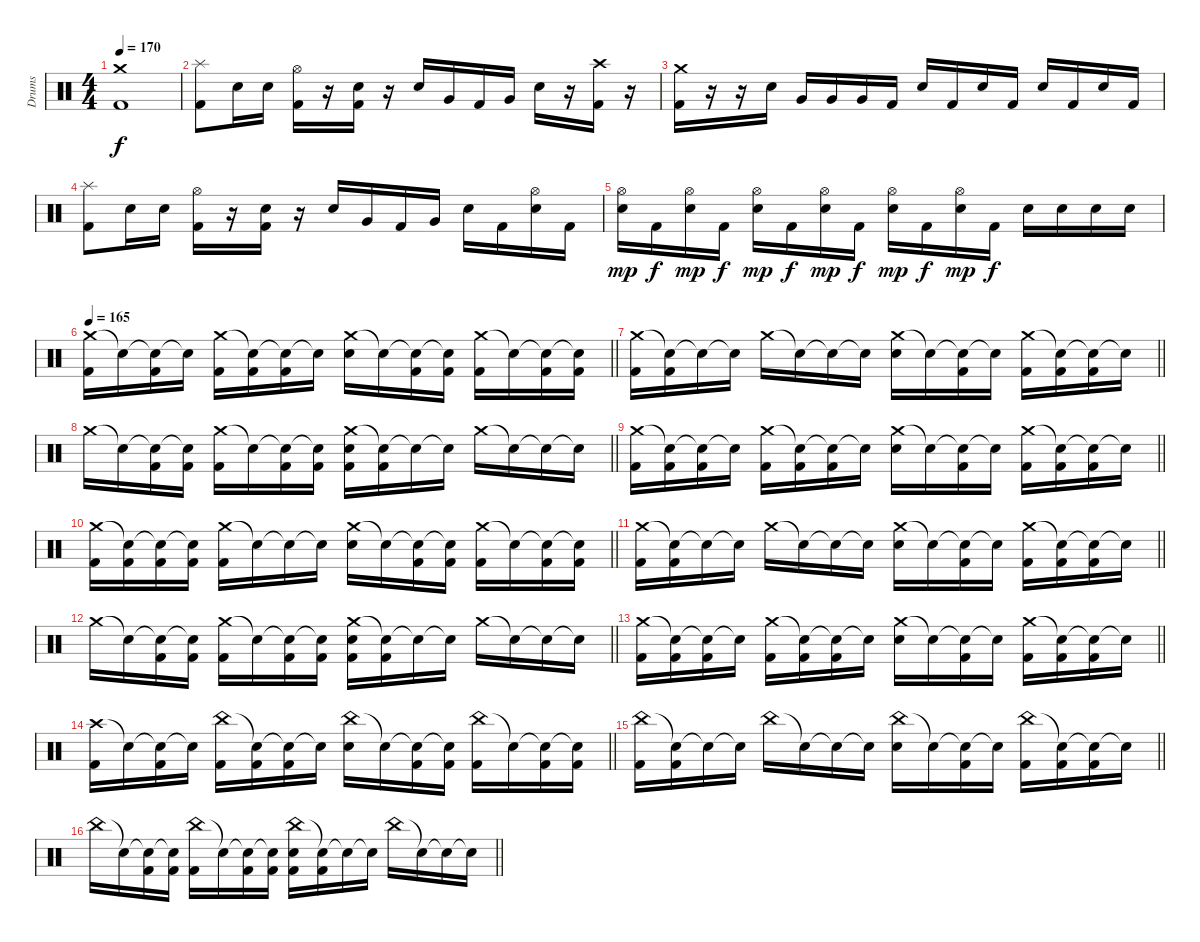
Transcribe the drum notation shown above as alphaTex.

\track ("Drums" "Drums") {instrument percussion}
\staff {score}
\articulation defaults
\ts (4 4)
\tempo 170
\clef neutral
\ks c
("Crash medium (hit)" "Kick (hit) 2").1{dy f} |
("Splash (hit)" "Kick (hit) 2").8 "Electric Snare (hit)".16 "Electric Snare (hit)".16 ("Hi-Hat (open)" "Kick (hit) 2").16 r.16 ("Electric Snare (hit)" "Kick (hit) 2").16 r.16 "Electric Snare (hit)".16 "Very Low Tom (hit)".16 "Kick (hit) 2".16 "Very Low Tom (hit)".16 "Electric Snare (hit)".16 r.16 ("Crash high (hit)" "Kick (hit) 2").16 r.16 |
("Crash medium (hit)" "Kick (hit) 2").16 r.16 r.16 "Electric Snare (hit)".16 "Very Low Tom (hit)".16 "Very Low Tom (hit)".16 "Very Low Tom (hit)".16 "Kick (hit) 2".16 "Electric Snare (hit)".16 "Kick (hit) 2".16 "Electric Snare (hit)".16 "Kick (hit) 2".16 "Electric Snare (hit)".16 "Kick (hit) 2".16 "Electric Snare (hit)".16 "Kick (hit) 2".16 |
("Splash (hit)" "Kick (hit) 2").8 "Electric Snare (hit)".16 "Electric Snare (hit)".16 ("Hi-Hat (open)" "Kick (hit) 2").16 r.16 ("Electric Snare (hit)" "Kick (hit) 2").16 r.16 "Electric Snare (hit)".16 "Very Low Tom (hit)".16 "Kick (hit) 2".16 "Very Low Tom (hit)".16 "Electric Snare (hit)".16 "Kick (hit) 2".16 ("Hi-Hat (open)" "Electric Snare (hit)").16 "Kick (hit) 2".16 |
("Hi-Hat (open)" "Electric Snare (hit)").16{dy mp} "Kick (hit) 2".16{dy f} ("Hi-Hat (open)" "Electric Snare (hit)").16{dy mp} "Kick (hit) 2".16{dy f} ("Hi-Hat (open)" "Electric Snare (hit)").16{dy mp} "Kick (hit) 2".16{dy f} ("Hi-Hat (open)" "Electric Snare (hit)").16{dy mp} "Kick (hit) 2".16{dy f} ("Hi-Hat (open)" "Electric Snare (hit)").16{dy mp} "Kick (hit) 2".16{dy f} ("Hi-Hat (open)" "Electric Snare (hit)").16{dy mp} "Kick (hit) 2".16{dy f} "Electric Snare (hit)".16 "Electric Snare (hit)".16 "Electric Snare (hit)".16 "Electric Snare (hit)".16 |
\tempo 165
\barLineRight lightlight
("Crash medium (hit)" "Kick (hit) 2").16 "Snare (hit)"{t}.16 ("Snare (hit)"{t} "Kick (hit) 2").16 "Snare (hit)"{t}.16 ("Crash medium (hit)" "Kick (hit) 2").16 ("Snare (hit)"{t} "Kick (hit) 2").16 ("Snare (hit)"{t} "Kick (hit) 2").16 "Snare (hit)"{t}.16 ("Crash medium (hit)" "Electric Snare (hit)").16 "Snare (hit)"{t}.16 ("Snare (hit)"{t} "Kick (hit) 2").16 ("Snare (hit)"{t} "Kick (hit) 2").16 ("Crash medium (hit)" "Kick (hit) 2").16 "Snare (hit)"{t}.16 ("Snare (hit)"{t} "Kick (hit) 2").16 ("Snare (hit)"{t} "Kick (hit) 2").16 |
\barLineRight lightlight
("Crash medium (hit)" "Kick (hit) 2").16 ("Snare (hit)"{t} "Kick (hit) 2").16 "Snare (hit)"{t}.16 "Snare (hit)"{t}.16 "Crash medium (hit)".16 "Snare (hit)"{t}.16 "Snare (hit)"{t}.16 "Snare (hit)"{t}.16 ("Crash medium (hit)" "Electric Snare (hit)").16 "Snare (hit)"{t}.16 ("Snare (hit)"{t} "Kick (hit) 2").16 "Snare (hit)"{t}.16 ("Crash medium (hit)" "Kick (hit) 2").16 ("Snare (hit)"{t} "Kick (hit) 2").16 ("Snare (hit)"{t} "Kick (hit) 2").16 "Snare (hit)"{t}.16 |
\barLineRight lightlight "Crash medium (hit)".16 "Snare (hit)"{t}.16
("Snare (hit)"{t} "Kick (hit) 2").16 ("Snare (hit)"{t} "Kick (hit) 2").16 ("Crash medium (hit)" "Kick (hit) 2").16 "Snare (hit)"{t}.16 ("Snare (hit)"{t} "Kick (hit) 2").16 ("Snare (hit)"{t} "Kick (hit) 2").16 ("Crash medium (hit)" "Electric Snare (hit)" "Kick (hit) 2").16 ("Snare (hit)"{t} "Kick (hit) 2").16 "Snare (hit)"{t}.16 "Snare (hit)"{t}.16 "Crash medium (hit)".16 "Snare (hit)"{t}.16 "Snare (hit)"{t}.16 "Snare (hit)"{t}.16 |
\barLineRight lightlight
("Crash medium (hit)" "Kick (hit) 2").16 ("Snare (hit)"{t} "Kick (hit) 2").16 ("Snare (hit)"{t} "Kick (hit) 2").16 "Snare (hit)"{t}.16 ("Crash medium (hit)" "Kick (hit) 2").16 ("Snare (hit)"{t} "Kick (hit) 2").16 ("Snare (hit)"{t} "Kick (hit) 2").16 "Snare (hit)"{t}.16 ("Crash medium (hit)" "Electric Snare (hit)").16 "Snare (hit)"{t}.16 ("Snare (hit)"{t} "Kick (hit) 2").16 "Snare (hit)"{t}.16 ("Crash medium (hit)" "Kick (hit) 2").16 ("Snare (hit)"{t} "Kick (hit) 2").16 ("Snare (hit)"{t} "Kick (hit) 2").16 "Snare (hit)"{t}.16 |
\barLineRight lightlight
("Crash medium (hit)" "Kick (hit) 2").16 ("Snare (hit)"{t} "Kick (hit) 2").16 ("Snare (hit)"{t} "Kick (hit) 2").16 ("Snare (hit)"{t} "Kick (hit) 2").16 ("Crash medium (hit)" "Kick (hit) 2").16 "Snare (hit)"{t}.16 "Snare (hit)"{t}.16 "Snare (hit)"{t}.16 ("Crash medium (hit)" "Electric Snare (hit)").16 "Snare (hit)"{t}.16 ("Snare (hit)"{t} "Kick (hit) 2").16 ("Snare (hit)"{t} "Kick (hit) 2").16 ("Crash medium (hit)" "Kick (hit) 2").16 "Snare (hit)"{t}.16 ("Snare (hit)"{t} "Kick (hit) 2").16 ("Snare (hit)"{t} "Kick (hit) 2").16 |
\barLineRight lightlight
("Crash medium (hit)" "Kick (hit) 2").16 ("Snare (hit)"{t} "Kick (hit) 2").16 "Snare (hit)"{t}.16 "Snare (hit)"{t}.16 "Crash medium (hit)".16 "Snare (hit)"{t}.16 "Snare (hit)"{t}.16 "Snare (hit)"{t}.16 ("Crash medium (hit)" "Electric Snare (hit)").16 "Snare (hit)"{t}.16 ("Snare (hit)"{t} "Kick (hit) 2").16 "Snare (hit)"{t}.16 ("Crash medium (hit)" "Kick (hit) 2").16 ("Snare (hit)"{t} "Kick (hit) 2").16 ("Snare (hit)"{t} "Kick (hit) 2").16 "Snare (hit)"{t}.16 |
\barLineRight lightlight "Crash medium (hit)".16 "Snare (hit)"{t}.16
("Snare (hit)"{t} "Kick (hit) 2").16 ("Snare (hit)"{t} "Kick (hit) 2").16 ("Crash medium (hit)" "Kick (hit) 2").16 "Snare (hit)"{t}.16 ("Snare (hit)"{t} "Kick (hit) 2").16 ("Snare (hit)"{t} "Kick (hit) 2").16 ("Crash medium (hit)" "Electric Snare (hit)" "Kick (hit) 2").16 ("Snare (hit)"{t} "Kick (hit) 2").16 "Snare (hit)"{t}.16 "Snare (hit)"{t}.16 "Crash medium (hit)".16 "Snare (hit)"{t}.16 "Snare (hit)"{t}.16 "Snare (hit)"{t}.16 |
\barLineRight lightlight
("Crash medium (hit)" "Kick (hit) 2").16 ("Snare (hit)"{t} "Kick (hit) 2").16 ("Snare (hit)"{t} "Kick (hit) 2").16 "Snare (hit)"{t}.16 ("Crash medium (hit)" "Kick (hit) 2").16 ("Snare (hit)"{t} "Kick (hit) 2").16 ("Snare (hit)"{t} "Kick (hit) 2").16 "Snare (hit)"{t}.16 ("Crash medium (hit)" "Electric Snare (hit)").16 "Snare (hit)"{t}.16 ("Snare (hit)"{t} "Kick (hit) 2").16 "Snare (hit)"{t}.16 ("Crash medium (hit)" "Kick (hit) 2").16 ("Snare (hit)"{t} "Kick (hit) 2").16 ("Snare (hit)"{t} "Kick (hit) 2").16 "Snare (hit)"{t}.16 |
\barLineRight lightlight
("Crash high (hit)" "Kick (hit) 2").16 "Snare (hit)"{t}.16 ("Snare (hit)"{t} "Kick (hit) 2").16 "Snare (hit)"{t}.16 ("China (hit)" "Kick (hit) 2").16 ("Snare (hit)"{t} "Kick (hit) 2").16 ("Snare (hit)"{t} "Kick (hit) 2").16 "Snare (hit)"{t}.16 ("China (hit)" "Electric Snare (hit)").16 "Snare (hit)"{t}.16 ("Snare (hit)"{t} "Kick (hit) 2").16 ("Snare (hit)"{t} "Kick (hit) 2").16 ("China (hit)" "Kick (hit) 2").16 "Snare (hit)"{t}.16 ("Snare (hit)"{t} "Kick (hit) 2").16 ("Snare (hit)"{t} "Kick (hit) 2").16 |
\barLineRight lightlight
("China (hit)" "Kick (hit) 2").16 ("Snare (hit)"{t} "Kick (hit) 2").16 "Snare (hit)"{t}.16 "Snare (hit)"{t}.16 "China (hit)".16 "Snare (hit)"{t}.16 "Snare (hit)"{t}.16 "Snare (hit)"{t}.16 ("China (hit)" "Electric Snare (hit)").16 "Snare (hit)"{t}.16 ("Snare (hit)"{t} "Kick (hit) 2").16 "Snare (hit)"{t}.16 ("China (hit)" "Kick (hit) 2").16 ("Snare (hit)"{t} "Kick (hit) 2").16 ("Snare (hit)"{t} "Kick (hit) 2").16 "Snare (hit)"{t}.16 |
\barLineRight lightlight "China (hit)".16 "Snare (hit)"{t}.16
("Snare (hit)"{t} "Kick (hit) 2").16 ("Snare (hit)"{t} "Kick (hit) 2").16 ("China (hit)" "Kick (hit) 2").16 "Snare (hit)"{t}.16 ("Snare (hit)"{t} "Kick (hit) 2").16 ("Snare (hit)"{t} "Kick (hit) 2").16 ("China (hit)" "Electric Snare (hit)" "Kick (hit) 2").16 ("Snare (hit)"{t} "Kick (hit) 2").16 "Snare (hit)"{t}.16 "Snare (hit)"{t}.16 "China (hit)".16 "Snare (hit)"{t}.16 "Snare (hit)"{t}.16 "Snare (hit)"{t}.16
